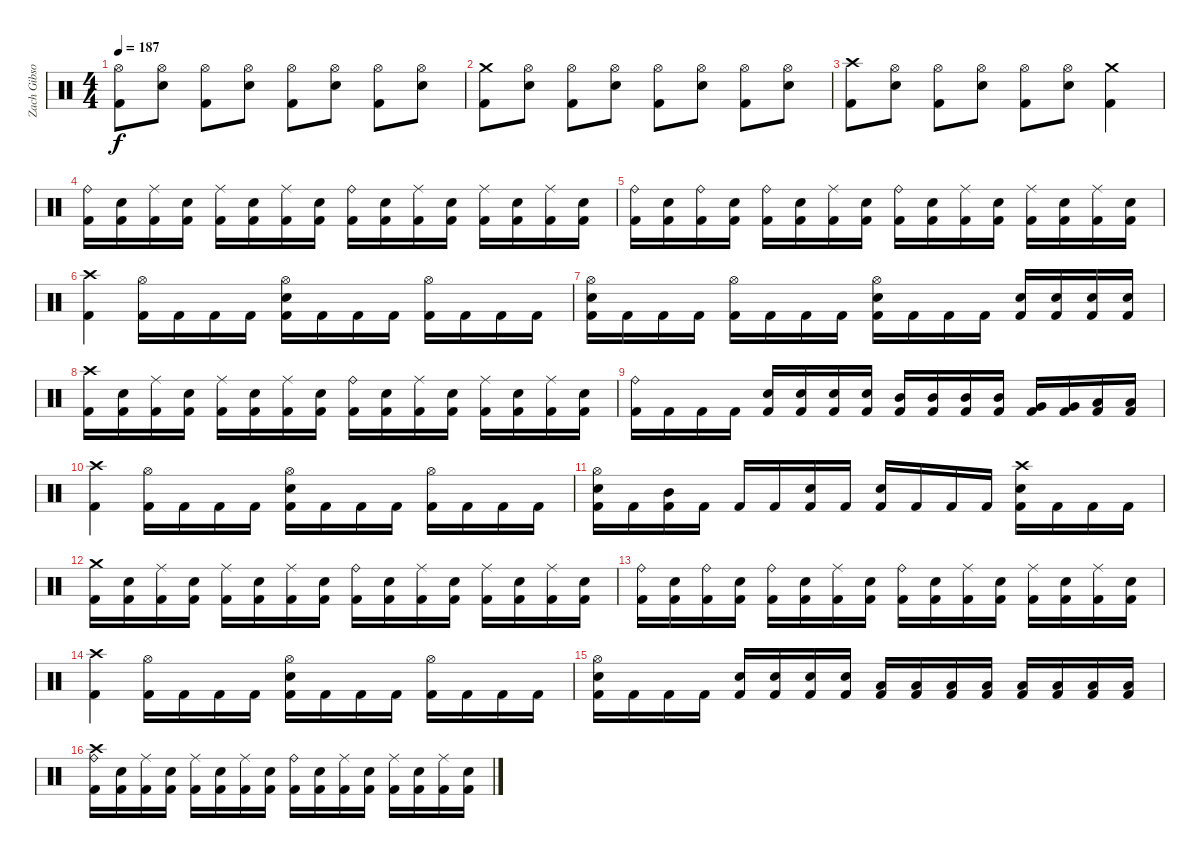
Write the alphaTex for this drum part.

\track ("Zach Gibson (Ex-Drums)" "Zach Gibso") {instrument percussion}
\staff {score}
\articulation defaults
\ts (4 4)
\tempo 187
\clef neutral
\ks c
("Hi-Hat (open)" "Kick (hit) 2").8{dy f} ("Hi-Hat (open)" "Snare (hit) 2").8 ("Hi-Hat (open)" "Kick (hit) 2").8 ("Hi-Hat (open)" "Snare (hit) 2").8 ("Hi-Hat (open)" "Kick (hit) 2").8 ("Hi-Hat (open)" "Snare (hit) 2").8 ("Hi-Hat (open)" "Kick (hit) 2").8 ("Hi-Hat (open)" "Snare (hit) 2").8 |
("Crash medium (hit)" "Kick (hit) 2").8 ("Hi-Hat (open)" "Snare (hit) 2").8 ("Hi-Hat (open)" "Kick (hit) 2").8 ("Hi-Hat (open)" "Snare (hit) 2").8 ("Hi-Hat (open)" "Kick (hit) 2").8 ("Hi-Hat (open)" "Snare (hit) 2").8 ("Hi-Hat (open)" "Kick (hit) 2").8 ("Hi-Hat (open)" "Snare (hit) 2").8 |
("Crash high (hit)" "Kick (hit) 2").8 ("Hi-Hat (open)" "Snare (hit) 2").8 ("Hi-Hat (open)" "Kick (hit) 2").8 ("Hi-Hat (open)" "Snare (hit) 2").8 ("Hi-Hat (open)" "Kick (hit) 2").8 ("Hi-Hat (open)" "Snare (hit) 2").8 ("Crash medium (hit)" "Kick (hit) 2").4 |
("Ride (bell)" "Kick (hit) 2").16 ("Snare (hit) 2" "Kick (hit) 2").16 ("Ride (middle)" "Kick (hit) 2").16 ("Snare (hit) 2" "Kick (hit) 2").16 ("Ride (middle)" "Kick (hit) 2").16 ("Snare (hit) 2" "Kick (hit) 2").16 ("Ride (middle)" "Kick (hit) 2").16 ("Snare (hit) 2" "Kick (hit) 2").16 ("Ride (bell)" "Kick (hit) 2").16 ("Snare (hit) 2" "Kick (hit) 2").16 ("Ride (middle)" "Kick (hit) 2").16 ("Snare (hit) 2" "Kick (hit) 2").16 ("Ride (middle)" "Kick (hit) 2").16 ("Snare (hit) 2" "Kick (hit) 2").16 ("Ride (middle)" "Kick (hit) 2").16 ("Snare (hit) 2" "Kick (hit) 2").16 |
("Ride (bell)" "Kick (hit) 2").16 ("Snare (hit) 2" "Kick (hit) 2").16 ("Ride (bell)" "Kick (hit) 2").16 ("Snare (hit) 2" "Kick (hit) 2").16 ("Ride (bell)" "Kick (hit) 2").16 ("Snare (hit) 2" "Kick (hit) 2").16 ("Ride (middle)" "Kick (hit) 2").16 ("Snare (hit) 2" "Kick (hit) 2").16 ("Ride (bell)" "Kick (hit) 2").16 ("Snare (hit) 2" "Kick (hit) 2").16 ("Ride (middle)" "Kick (hit) 2").16 ("Snare (hit) 2" "Kick (hit) 2").16 ("Ride (middle)" "Kick (hit) 2").16 ("Snare (hit) 2" "Kick (hit) 2").16 ("Ride (middle)" "Kick (hit) 2").16 ("Snare (hit) 2" "Kick (hit) 2").16 |
("Crash high (hit)" "Kick (hit) 2").4 ("Hi-Hat (open)" "Kick (hit) 2").16 "Kick (hit) 2".16 "Kick (hit) 2".16 "Kick (hit) 2".16 ("Hi-Hat (open)" "Snare (hit) 2" "Kick (hit) 2").16 "Kick (hit) 2".16 "Kick (hit) 2".16 "Kick (hit) 2".16 ("Hi-Hat (open)" "Kick (hit) 2").16 "Kick (hit) 2".16 "Kick (hit) 2".16 "Kick (hit) 2".16 |
("Snare (hit) 2" "Hi-Hat (open)" "Kick (hit) 2").16 "Kick (hit) 2".16 "Kick (hit) 2".16 "Kick (hit) 2".16 ("Hi-Hat (open)" "Kick (hit) 2").16 "Kick (hit) 2".16 "Kick (hit) 2".16 "Kick (hit) 2".16 ("Hi-Hat (open)" "Snare (hit) 2" "Kick (hit) 2").16 "Kick (hit) 2".16 "Kick (hit) 2".16 "Kick (hit) 2".16 ("Snare (hit) 2" "Kick (hit) 2").16 ("Snare (hit) 2" "Kick (hit) 2").16 ("Snare (hit) 2" "Kick (hit) 2").16 ("Snare (hit) 2" "Kick (hit) 2").16 |
("Crash high (hit)" "Kick (hit) 2").16 ("Snare (hit) 2" "Kick (hit) 2").16 ("Ride (middle)" "Kick (hit) 2").16 ("Snare (hit) 2" "Kick (hit) 2").16 ("Ride (middle)" "Kick (hit) 2").16 ("Snare (hit) 2" "Kick (hit) 2").16 ("Ride (middle)" "Kick (hit) 2").16 ("Snare (hit) 2" "Kick (hit) 2").16 ("Ride (bell)" "Kick (hit) 2").16 ("Snare (hit) 2" "Kick (hit) 2").16 ("Ride (middle)" "Kick (hit) 2").16 ("Snare (hit) 2" "Kick (hit) 2").16 ("Ride (middle)" "Kick (hit) 2").16 ("Snare (hit) 2" "Kick (hit) 2").16 ("Ride (middle)" "Kick (hit) 2").16 ("Snare (hit) 2" "Kick (hit) 2").16 |
("Ride (bell)" "Kick (hit) 2").16 "Kick (hit) 2".16 "Kick (hit) 2".16 "Kick (hit) 2".16 ("Snare (hit) 2" "Kick (hit) 2").16 ("Snare (hit) 2" "Kick (hit) 2").16 ("Snare (hit) 2" "Kick (hit) 2").16 ("Snare (hit) 2" "Kick (hit) 2").16 ("Mid Tom (hit)" "Kick (hit) 2").16 ("Mid Tom (hit)" "Kick (hit) 2").16 ("Mid Tom (hit)" "Kick (hit) 2").16 ("Mid Tom (hit)" "Kick (hit) 2").16 ("Very Low Tom (hit)" "Kick (hit) 2").16 ("Very Low Tom (hit)" "Kick (hit) 2").16 ("Low Floor Tom (hit)" "Kick (hit) 2").16 ("Low Floor Tom (hit)" "Kick (hit) 2").16 |
("Crash high (hit)" "Kick (hit) 2").4 ("Hi-Hat (open)" "Kick (hit) 2").16 "Kick (hit) 2".16 "Kick (hit) 2".16 "Kick (hit) 2".16 ("Hi-Hat (open)" "Snare (hit) 2" "Kick (hit) 2").16 "Kick (hit) 2".16 "Kick (hit) 2".16 "Kick (hit) 2".16 ("Hi-Hat (open)" "Kick (hit) 2").16 "Kick (hit) 2".16 "Kick (hit) 2".16 "Kick (hit) 2".16 |
("Snare (hit) 2" "Hi-Hat (open)" "Kick (hit) 2").16 "Kick (hit) 2".16 ("Mid Tom (hit)" "Kick (hit) 2").16 "Kick (hit) 2".16 "Kick (hit) 2".16 "Kick (hit) 2".16 ("Snare (hit) 2" "Kick (hit) 2").16 "Kick (hit) 2".16 ("Snare (hit) 2" "Kick (hit) 2").16 "Kick (hit) 2".16 "Kick (hit) 2".16 "Kick (hit) 2".16 ("Crash high (hit)" "Snare (hit) 2" "Kick (hit) 2").16 "Kick (hit) 2".16 "Kick (hit) 2".16 "Kick (hit) 2".16 |
("Crash medium (hit)" "Kick (hit) 2").16 ("Snare (hit) 2" "Kick (hit) 2").16 ("Ride (middle)" "Kick (hit) 2").16 ("Snare (hit) 2" "Kick (hit) 2").16 ("Ride (middle)" "Kick (hit) 2").16 ("Snare (hit) 2" "Kick (hit) 2").16 ("Ride (middle)" "Kick (hit) 2").16 ("Snare (hit) 2" "Kick (hit) 2").16 ("Ride (bell)" "Kick (hit) 2").16 ("Snare (hit) 2" "Kick (hit) 2").16 ("Ride (middle)" "Kick (hit) 2").16 ("Snare (hit) 2" "Kick (hit) 2").16 ("Ride (middle)" "Kick (hit) 2").16 ("Snare (hit) 2" "Kick (hit) 2").16 ("Ride (middle)" "Kick (hit) 2").16 ("Snare (hit) 2" "Kick (hit) 2").16 |
("Ride (bell)" "Kick (hit) 2").16 ("Snare (hit) 2" "Kick (hit) 2").16 ("Ride (bell)" "Kick (hit) 2").16 ("Snare (hit) 2" "Kick (hit) 2").16 ("Ride (bell)" "Kick (hit) 2").16 ("Snare (hit) 2" "Kick (hit) 2").16 ("Ride (middle)" "Kick (hit) 2").16 ("Snare (hit) 2" "Kick (hit) 2").16 ("Ride (bell)" "Kick (hit) 2").16 ("Snare (hit) 2" "Kick (hit) 2").16 ("Ride (middle)" "Kick (hit) 2").16 ("Snare (hit) 2" "Kick (hit) 2").16 ("Ride (middle)" "Kick (hit) 2").16 ("Snare (hit) 2" "Kick (hit) 2").16 ("Ride (middle)" "Kick (hit) 2").16 ("Snare (hit) 2" "Kick (hit) 2").16 |
("Crash high (hit)" "Kick (hit) 2").4 ("Hi-Hat (open)" "Kick (hit) 2").16 "Kick (hit) 2".16 "Kick (hit) 2".16 "Kick (hit) 2".16 ("Hi-Hat (open)" "Snare (hit) 2" "Kick (hit) 2").16 "Kick (hit) 2".16 "Kick (hit) 2".16 "Kick (hit) 2".16 ("Hi-Hat (open)" "Kick (hit) 2").16 "Kick (hit) 2".16 "Kick (hit) 2".16 "Kick (hit) 2".16 |
("Snare (hit) 2" "Hi-Hat (open)" "Kick (hit) 2").16 "Kick (hit) 2".16 "Kick (hit) 2".16 "Kick (hit) 2".16 ("Snare (hit) 2" "Kick (hit) 2").16 ("Snare (hit) 2" "Kick (hit) 2").16 ("Snare (hit) 2" "Kick (hit) 2").16 ("Snare (hit) 2" "Kick (hit) 2").16 ("Low Tom (hit)" "Kick (hit) 2").16 ("Low Tom (hit)" "Kick (hit) 2").16 ("Low Tom (hit)" "Kick (hit) 2").16 ("Low Tom (hit)" "Kick (hit) 2").16 ("Low Floor Tom (hit)" "Kick (hit) 2").16 ("Low Floor Tom (hit)" "Kick (hit) 2").16 ("Low Floor Tom (hit)" "Kick (hit) 2").16 ("Low Floor Tom (hit)" "Kick (hit) 2").16 |
("Crash high (hit)" "Ride (bell)" "Kick (hit) 2").16 ("Snare (hit) 2" "Kick (hit) 2").16 ("Ride (middle)" "Kick (hit) 2").16 ("Snare (hit) 2" "Kick (hit) 2").16 ("Ride (middle)" "Kick (hit) 2").16 ("Snare (hit) 2" "Kick (hit) 2").16 ("Ride (middle)" "Kick (hit) 2").16 ("Snare (hit) 2" "Kick (hit) 2").16 ("Ride (bell)" "Kick (hit) 2").16 ("Snare (hit) 2" "Kick (hit) 2").16 ("Ride (middle)" "Kick (hit) 2").16 ("Snare (hit) 2" "Kick (hit) 2").16 ("Ride (middle)" "Kick (hit) 2").16 ("Snare (hit) 2" "Kick (hit) 2").16 ("Ride (middle)" "Kick (hit) 2").16 ("Snare (hit) 2" "Kick (hit) 2").16
